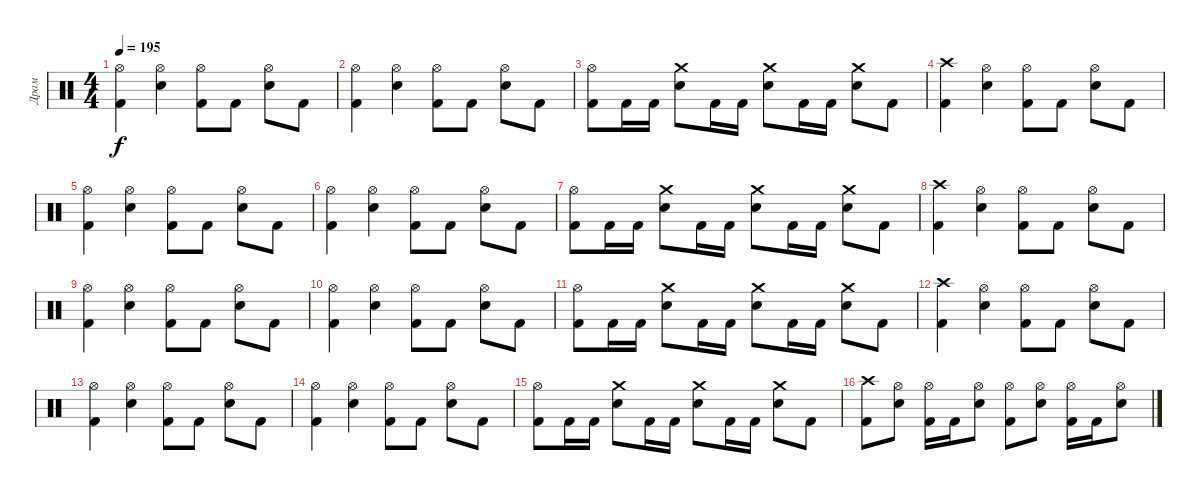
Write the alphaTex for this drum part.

\track ("Драм" "Драм") {instrument percussion}
\staff {score}
\articulation defaults
\ts (4 4)
\tempo 195
\clef neutral
\ks c
("Hi-Hat (open)" "Kick (hit) 2").4{dy f} ("Hi-Hat (open)" "Snare (hit) 2").4 ("Hi-Hat (open)" "Kick (hit) 2").8 "Kick (hit) 2".8 ("Hi-Hat (open)" "Snare (hit) 2").8 "Kick (hit) 2".8 |
("Hi-Hat (open)" "Kick (hit) 2").4 ("Hi-Hat (open)" "Snare (hit) 2").4 ("Hi-Hat (open)" "Kick (hit) 2").8 "Kick (hit) 2".8 ("Hi-Hat (open)" "Snare (hit) 2").8 "Kick (hit) 2".8 |
("Hi-Hat (open)" "Kick (hit) 2").8 "Kick (hit) 2".16 "Kick (hit) 2".16 ("Snare (hit) 2" "Crash medium (hit)").8 "Kick (hit) 2".16 "Kick (hit) 2".16 ("Snare (hit) 2" "Crash medium (hit)").8 "Kick (hit) 2".16 "Kick (hit) 2".16 ("Snare (hit) 2" "Crash medium (hit)").8 "Kick (hit) 2".8 |
("Kick (hit) 2" "Crash high (hit)").4 ("Hi-Hat (open)" "Snare (hit) 2").4 ("Hi-Hat (open)" "Kick (hit) 2").8 "Kick (hit) 2".8 ("Hi-Hat (open)" "Snare (hit) 2").8 "Kick (hit) 2".8 |
("Hi-Hat (open)" "Kick (hit) 2").4 ("Hi-Hat (open)" "Snare (hit) 2").4 ("Hi-Hat (open)" "Kick (hit) 2").8 "Kick (hit) 2".8 ("Hi-Hat (open)" "Snare (hit) 2").8 "Kick (hit) 2".8 |
("Hi-Hat (open)" "Kick (hit) 2").4 ("Hi-Hat (open)" "Snare (hit) 2").4 ("Hi-Hat (open)" "Kick (hit) 2").8 "Kick (hit) 2".8 ("Hi-Hat (open)" "Snare (hit) 2").8 "Kick (hit) 2".8 |
("Hi-Hat (open)" "Kick (hit) 2").8 "Kick (hit) 2".16 "Kick (hit) 2".16 ("Snare (hit) 2" "Crash medium (hit)").8 "Kick (hit) 2".16 "Kick (hit) 2".16 ("Snare (hit) 2" "Crash medium (hit)").8 "Kick (hit) 2".16 "Kick (hit) 2".16 ("Snare (hit) 2" "Crash medium (hit)").8 "Kick (hit) 2".8 |
("Kick (hit) 2" "Crash high (hit)").4 ("Hi-Hat (open)" "Snare (hit) 2").4 ("Hi-Hat (open)" "Kick (hit) 2").8 "Kick (hit) 2".8 ("Hi-Hat (open)" "Snare (hit) 2").8 "Kick (hit) 2".8 |
("Hi-Hat (open)" "Kick (hit) 2").4 ("Hi-Hat (open)" "Snare (hit) 2").4 ("Hi-Hat (open)" "Kick (hit) 2").8 "Kick (hit) 2".8 ("Hi-Hat (open)" "Snare (hit) 2").8 "Kick (hit) 2".8 |
("Hi-Hat (open)" "Kick (hit) 2").4 ("Hi-Hat (open)" "Snare (hit) 2").4 ("Hi-Hat (open)" "Kick (hit) 2").8 "Kick (hit) 2".8 ("Hi-Hat (open)" "Snare (hit) 2").8 "Kick (hit) 2".8 |
("Hi-Hat (open)" "Kick (hit) 2").8 "Kick (hit) 2".16 "Kick (hit) 2".16 ("Snare (hit) 2" "Crash medium (hit)").8 "Kick (hit) 2".16 "Kick (hit) 2".16 ("Snare (hit) 2" "Crash medium (hit)").8 "Kick (hit) 2".16 "Kick (hit) 2".16 ("Snare (hit) 2" "Crash medium (hit)").8 "Kick (hit) 2".8 |
("Kick (hit) 2" "Crash high (hit)").4 ("Hi-Hat (open)" "Snare (hit) 2").4 ("Hi-Hat (open)" "Kick (hit) 2").8 "Kick (hit) 2".8 ("Hi-Hat (open)" "Snare (hit) 2").8 "Kick (hit) 2".8 |
("Hi-Hat (open)" "Kick (hit) 2").4 ("Hi-Hat (open)" "Snare (hit) 2").4 ("Hi-Hat (open)" "Kick (hit) 2").8 "Kick (hit) 2".8 ("Hi-Hat (open)" "Snare (hit) 2").8 "Kick (hit) 2".8 |
("Hi-Hat (open)" "Kick (hit) 2").4 ("Hi-Hat (open)" "Snare (hit) 2").4 ("Hi-Hat (open)" "Kick (hit) 2").8 "Kick (hit) 2".8 ("Hi-Hat (open)" "Snare (hit) 2").8 "Kick (hit) 2".8 |
("Hi-Hat (open)" "Kick (hit) 2").8 "Kick (hit) 2".16 "Kick (hit) 2".16 ("Snare (hit) 2" "Crash medium (hit)").8 "Kick (hit) 2".16 "Kick (hit) 2".16 ("Snare (hit) 2" "Crash medium (hit)").8 "Kick (hit) 2".16 "Kick (hit) 2".16 ("Snare (hit) 2" "Crash medium (hit)").8 "Kick (hit) 2".8 |
("Kick (hit) 2" "Crash high (hit)").8 ("Hi-Hat (open)" "Snare (hit) 2").8 ("Hi-Hat (open)" "Kick (hit) 2").16 "Kick (hit) 2".16 ("Hi-Hat (open)" "Snare (hit) 2").8 ("Hi-Hat (open)" "Kick (hit) 2").8 ("Hi-Hat (open)" "Snare (hit) 2").8 ("Hi-Hat (open)" "Kick (hit) 2").16 "Kick (hit) 2".16 ("Hi-Hat (open)" "Snare (hit) 2").8
